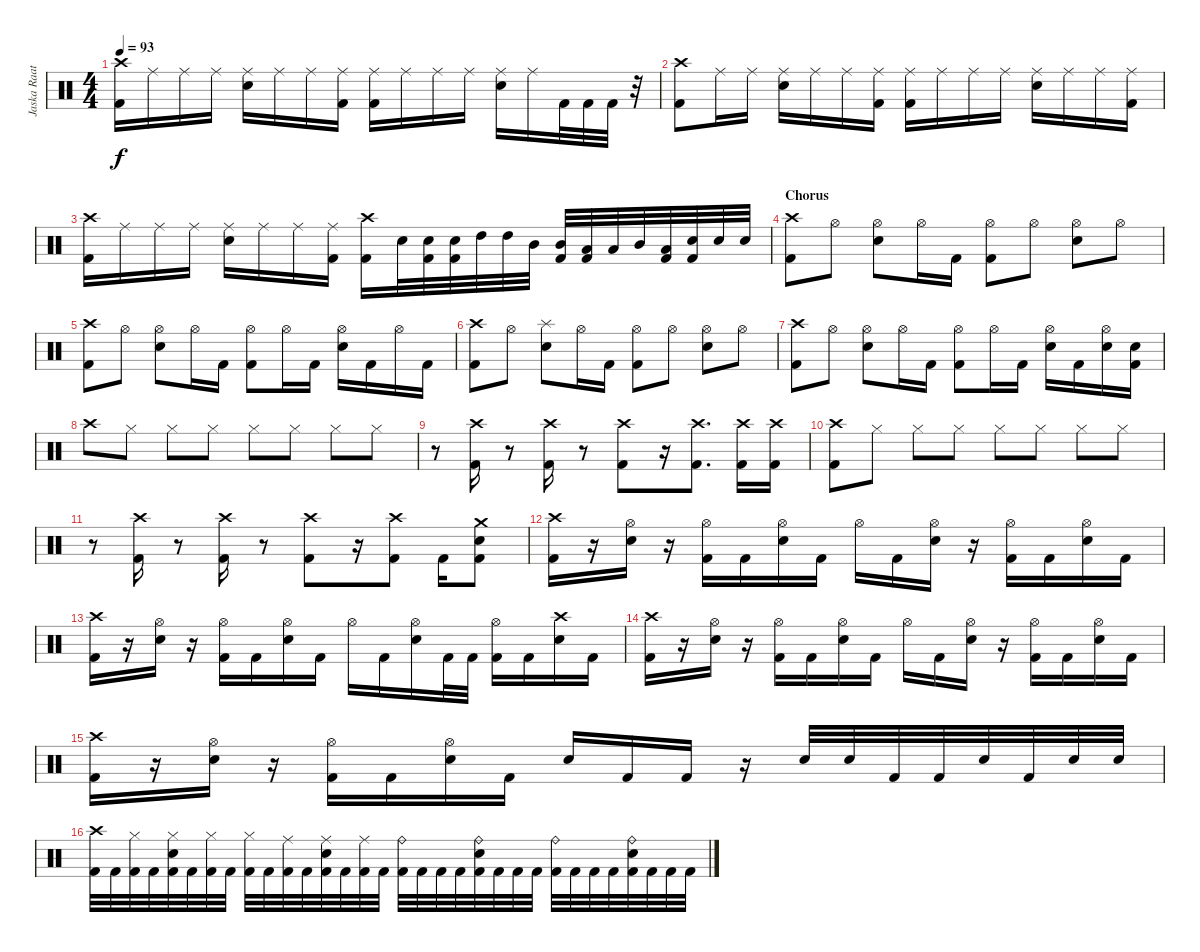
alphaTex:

\track ("Jaska Raatikainen" "Jaska Raat") {instrument percussion}
\staff {score}
\articulation defaults
\ts (4 4)
\tempo 93
\clef neutral
\ks c
("Crash high (hit)" "Kick (hit) 2").16{dy f} "Ride (middle)".16 "Ride (middle)".16 "Ride (middle)".16 ("Ride (middle)" "Snare (hit) 2").16 "Ride (middle)".16 "Ride (middle)".16 ("Ride (middle)" "Kick (hit) 2").16 ("Ride (middle)" "Kick (hit) 2").16 "Ride (middle)".16 "Ride (middle)".16 "Ride (middle)".16 ("Ride (middle)" "Snare (hit) 2").16 "Ride (middle)".16 "Kick (hit) 2".32 "Kick (hit) 2".32 "Kick (hit) 2".32 r.32 |
("Crash high (hit)" "Kick (hit) 2").8 "Ride (middle)".16 "Ride (middle)".16 ("Ride (middle)" "Snare (hit) 2").16 "Ride (middle)".16 "Ride (middle)".16 ("Ride (middle)" "Kick (hit) 2").16 ("Ride (middle)" "Kick (hit) 2").16 "Ride (middle)".16 "Ride (middle)".16 "Ride (middle)".16 ("Ride (middle)" "Snare (hit) 2").16 "Ride (middle)".16 "Ride (middle)".16 ("Ride (middle)" "Kick (hit) 2").16 |
("Crash high (hit)" "Kick (hit) 2").16 "Ride (middle)".16 "Ride (middle)".16 "Ride (middle)".16 ("Ride (middle)" "Snare (hit) 2").16 "Ride (middle)".16 "Ride (middle)".16 ("Ride (middle)" "Kick (hit) 2").16 ("Crash high (hit)" "Kick (hit) 2").16 "Snare (hit) 2".32 ("Snare (hit) 2" "Kick (hit) 2").32 ("Snare (hit) 2" "Kick (hit) 2").32 "High Tom (hit)".32 "High Tom (hit)".32 "Mid Tom (hit)".32 ("Mid Tom (hit)" "Kick (hit) 2").32 ("Low Tom (hit)" "Kick (hit) 2").32 "Low Tom (hit)".32 "Mid Tom (hit)".32 ("Low Tom (hit)" "Kick (hit) 2").32 ("Snare (hit) 2" "Kick (hit) 2").32 "Snare (hit) 2".32 "Snare (hit) 2".32 |
\section ("" "Chorus")
("Crash high (hit)" "Kick (hit) 2").8 "Hi-Hat (open)".8 ("Hi-Hat (open)" "Snare (hit) 2").8 "Hi-Hat (open)".16 "Kick (hit) 2".16 ("Hi-Hat (open)" "Kick (hit) 2").8 "Hi-Hat (open)".8 ("Hi-Hat (open)" "Snare (hit) 2").8 "Hi-Hat (open)".8 |
("Crash high (hit)" "Kick (hit) 2").8 "Hi-Hat (open)".8 ("Hi-Hat (open)" "Snare (hit) 2").8 "Hi-Hat (open)".16 "Kick (hit) 2".16 ("Hi-Hat (open)" "Kick (hit) 2").8 "Hi-Hat (open)".16 "Kick (hit) 2".16 ("Hi-Hat (open)" "Snare (hit) 2").16 "Kick (hit) 2".16 "Hi-Hat (open)".16 "Kick (hit) 2".16 |
("Crash high (hit)" "Kick (hit) 2").8 "Hi-Hat (open)".8 ("Splash (hit)" "Snare (hit) 2").8 "Hi-Hat (open)".16 "Kick (hit) 2".16 ("Hi-Hat (open)" "Kick (hit) 2").8 "Hi-Hat (open)".8 ("Hi-Hat (open)" "Snare (hit) 2").8 "Hi-Hat (open)".8 |
("Crash high (hit)" "Kick (hit) 2").8 "Hi-Hat (open)".8 ("Hi-Hat (open)" "Snare (hit) 2").8 "Hi-Hat (open)".16 "Kick (hit) 2".16 ("Hi-Hat (open)" "Kick (hit) 2").8 "Hi-Hat (open)".16 "Kick (hit) 2".16 ("Hi-Hat (open)" "Snare (hit) 2").16 "Kick (hit) 2".16 ("Hi-Hat (open)" "Snare (hit) 2").16 ("Snare (hit) 2" "Kick (hit) 2").16 |
"Crash high (hit)".8{volume 7} "Hi-Hat (closed)".8 "Hi-Hat (closed)".8 "Hi-Hat (closed)".8 "Hi-Hat (closed)".8 "Hi-Hat (closed)".8 "Hi-Hat (closed)".8 "Hi-Hat (closed)".8 |
r.8{volume 14} ("Crash high (hit)" "Kick (hit) 2").16 r.8 ("Crash high (hit)" "Kick (hit) 2").16 r.8 ("Crash high (hit)" "Kick (hit) 2").8 r.16 ("Crash high (hit)" "Kick (hit) 2").8{d} ("Crash high (hit)" "Kick (hit) 2").16 ("Crash high (hit)" "Kick (hit) 2").16 |
("Crash high (hit)" "Kick (hit) 2").8 "Hi-Hat (closed)".8{volume 8} "Hi-Hat (closed)".8 "Hi-Hat (closed)".8 "Hi-Hat (closed)".8 "Hi-Hat (closed)".8 "Hi-Hat (closed)".8 "Hi-Hat (closed)".8 |
r.8{volume 14} ("Crash high (hit)" "Kick (hit) 2").16 r.8 ("Crash high (hit)" "Kick (hit) 2").16 r.8 ("Crash high (hit)" "Kick (hit) 2").8 r.16 ("Crash high (hit)" "Kick (hit) 2").8 "Kick (hit) 2".16 ("Crash medium (hit)" "Snare (hit) 2" "Kick (hit) 2").8 |
("Crash high (hit)" "Kick (hit) 2").16 r.16 ("Hi-Hat (open)" "Snare (hit) 2").16 r.16 ("Hi-Hat (open)" "Kick (hit) 2").16 "Kick (hit) 2".16 ("Hi-Hat (open)" "Snare (hit) 2").16 "Kick (hit) 2".16 "Hi-Hat (open)".16 "Kick (hit) 2".16 ("Hi-Hat (open)" "Snare (hit) 2").16 r.16 ("Hi-Hat (open)" "Kick (hit) 2").16 "Kick (hit) 2".16 ("Hi-Hat (open)" "Snare (hit) 2").16 "Kick (hit) 2".16 |
("Crash high (hit)" "Kick (hit) 2").16 r.16 ("Hi-Hat (open)" "Snare (hit) 2").16 r.16 ("Hi-Hat (open)" "Kick (hit) 2").16 "Kick (hit) 2".16 ("Hi-Hat (open)" "Snare (hit) 2").16 "Kick (hit) 2".16 "Hi-Hat (open)".16 "Kick (hit) 2".16 ("Hi-Hat (open)" "Snare (hit) 2").16 "Kick (hit) 2".32 "Kick (hit) 2".32 ("Hi-Hat (open)" "Kick (hit) 2").16 "Kick (hit) 2".16 ("Crash high (hit)" "Snare (hit) 2").16 "Kick (hit) 2".16 |
("Crash high (hit)" "Kick (hit) 2").16 r.16 ("Hi-Hat (open)" "Snare (hit) 2").16 r.16 ("Hi-Hat (open)" "Kick (hit) 2").16 "Kick (hit) 2".16 ("Hi-Hat (open)" "Snare (hit) 2").16 "Kick (hit) 2".16 "Hi-Hat (open)".16 "Kick (hit) 2".16 ("Hi-Hat (open)" "Snare (hit) 2").16 r.16 ("Hi-Hat (open)" "Kick (hit) 2").16 "Kick (hit) 2".16 ("Hi-Hat (open)" "Snare (hit) 2").16 "Kick (hit) 2".16 |
("Crash high (hit)" "Kick (hit) 2").16 r.16 ("Hi-Hat (open)" "Snare (hit) 2").16 r.16 ("Hi-Hat (open)" "Kick (hit) 2").16 "Kick (hit) 2".16 ("Hi-Hat (open)" "Snare (hit) 2").16 "Kick (hit) 2".16 "Snare (hit) 2".16 "Kick (hit) 2".16 "Kick (hit) 2".16 r.16 "Snare (hit) 2".32 "Snare (hit) 2".32 "Kick (hit) 2".32 "Kick (hit) 2".32 "Snare (hit) 2".32 "Kick (hit) 2".32 "Snare (hit) 2".32 "Snare (hit) 2".32 |
("Crash high (hit)" "Kick (hit) 2").32 "Kick (hit) 2".32 ("Hi-Hat (closed)" "Kick (hit) 2").32 "Kick (hit) 2".32 ("Hi-Hat (closed)" "Snare (hit) 2" "Kick (hit) 2").32 "Kick (hit) 2".32 ("Hi-Hat (closed)" "Kick (hit) 2").32 "Kick (hit) 2".32 ("Hi-Hat (closed)" "Kick (hit) 2").32 "Kick (hit) 2".32 ("Ride (middle)" "Kick (hit) 2").32 "Kick (hit) 2".32 ("Ride (middle)" "Snare (hit) 2" "Kick (hit) 2").32 "Kick (hit) 2".32 ("Ride (middle)" "Kick (hit) 2").32 "Kick (hit) 2".32 ("Ride (bell)" "Kick (hit) 2").32 "Kick (hit) 2".32 "Kick (hit) 2".32 "Kick (hit) 2".32 ("Ride (bell)" "Snare (hit) 2" "Kick (hit) 2").32 "Kick (hit) 2".32 "Kick (hit) 2".32 "Kick (hit) 2".32 ("Ride (bell)" "Kick (hit) 2").32 "Kick (hit) 2".32 "Kick (hit) 2".32 "Kick (hit) 2".32 ("Ride (bell)" "Snare (hit) 2" "Kick (hit) 2").32 "Kick (hit) 2".32 "Kick (hit) 2".32 "Kick (hit) 2".32
